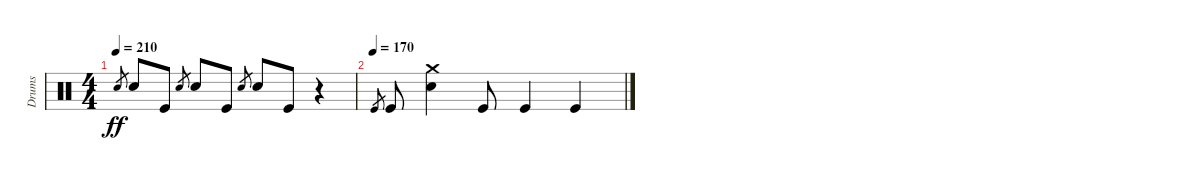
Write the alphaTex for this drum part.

\track ("Drums" "Drums") {instrument percussion}
\staff {score}
\articulation defaults
\ts (4 4)
\tempo 210
\clef neutral
\ks c "Electric Snare (hit)".8{gr dy ff} "Electric Snare (hit)".8 "Kick (hit)".8 "Electric Snare (hit)".8{gr} "Electric Snare (hit)".8 "Kick (hit)".8 "Electric Snare (hit)".8{gr} "Electric Snare (hit)".8 "Kick (hit)".8
r.4 |
\tempo (170)
"Kick (hit)".8{gr} "Kick (hit)".8 ("Crash medium (hit)" "Electric Snare (hit)").4 "Kick (hit)".8 "Kick (hit)".4 "Kick (hit)".4
